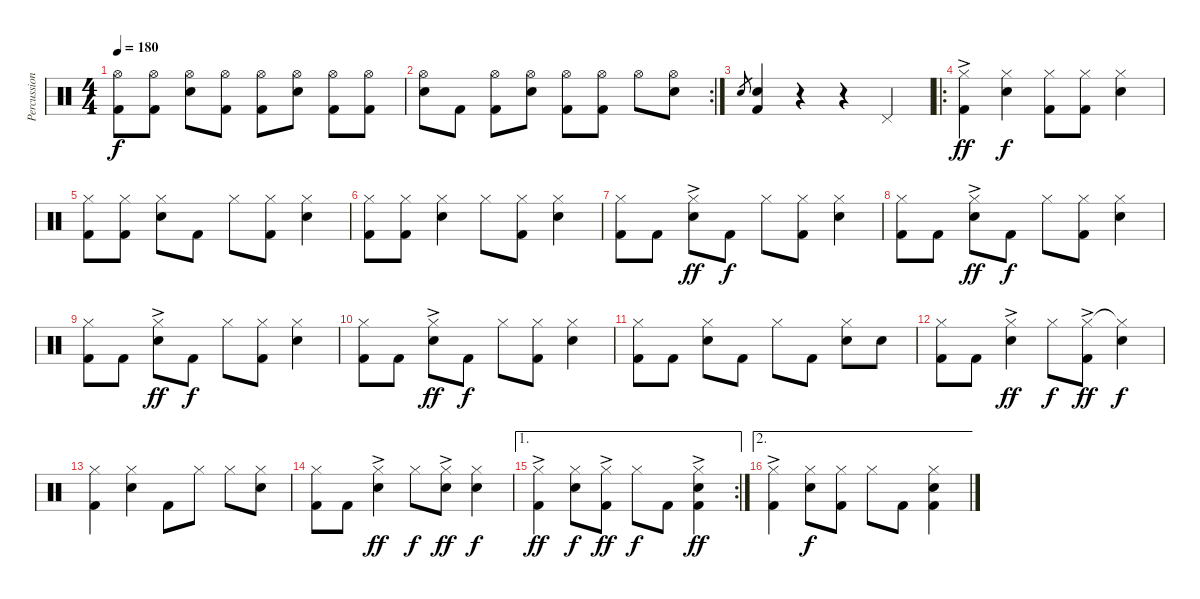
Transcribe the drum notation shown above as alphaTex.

\track ("Percussion" "Percussion") {instrument percussion}
\staff {score}
\articulation defaults
\ts (4 4)
\tempo 180
\clef neutral
\ks c
("Hi-Hat (open)" "Kick (hit) 2").8{dy f} ("Hi-Hat (open)" "Kick (hit) 2").8 ("Hi-Hat (open)" "Snare (hit) 2").8 ("Hi-Hat (open)" "Kick (hit) 2").8 ("Hi-Hat (open)" "Kick (hit) 2").8 ("Hi-Hat (open)" "Snare (hit) 2").8 ("Hi-Hat (open)" "Kick (hit) 2").8 ("Hi-Hat (open)" "Kick (hit) 2").8 |
\rc 2
("Hi-Hat (open)" "Snare (hit) 2").8 "Kick (hit) 2".8 ("Hi-Hat (open)" "Kick (hit) 2").8 ("Hi-Hat (open)" "Snare (hit) 2").8 ("Hi-Hat (open)" "Kick (hit) 2").8 ("Hi-Hat (open)" "Kick (hit) 2").8 "Hi-Hat (open)".8 ("Hi-Hat (open)" "Snare (hit) 2").8 |
"Snare (hit) 2".8{gr} ("Snare (hit) 2" "Kick (hit) 2").4 r.4 r.4 "Pedal Hi-Hat (hit)".4 |
\ro
("Hi-Hat (closed)"{ac} "Kick (hit) 2").4{dy ff} ("Hi-Hat (closed)" "Snare (hit) 2").4{dy f} ("Hi-Hat (closed)" "Kick (hit) 2").8 ("Hi-Hat (closed)" "Kick (hit) 2").8 ("Hi-Hat (closed)" "Snare (hit) 2").4 |
("Hi-Hat (closed)" "Kick (hit) 2").8 ("Hi-Hat (closed)" "Kick (hit) 2").8 ("Hi-Hat (closed)" "Snare (hit) 2").8 "Kick (hit) 2".8 "Hi-Hat (closed)".8 ("Hi-Hat (closed)" "Kick (hit) 2").8 ("Hi-Hat (closed)" "Snare (hit) 2").4 |
("Hi-Hat (closed)" "Kick (hit) 2").8 ("Hi-Hat (closed)" "Kick (hit) 2").8 ("Hi-Hat (closed)" "Snare (hit) 2").4 "Hi-Hat (closed)".8 ("Hi-Hat (closed)" "Kick (hit) 2").8 ("Hi-Hat (closed)" "Snare (hit) 2").4 |
("Hi-Hat (closed)" "Kick (hit) 2").8 "Kick (hit) 2".8 ("Hi-Hat (closed)"{ac} "Snare (hit) 2").8{dy ff} "Kick (hit) 2".8{dy f} "Hi-Hat (closed)".8 ("Hi-Hat (closed)" "Kick (hit) 2").8 ("Hi-Hat (closed)" "Snare (hit) 2").4 |
("Hi-Hat (closed)" "Kick (hit) 2").8 "Kick (hit) 2".8 ("Hi-Hat (closed)"{ac} "Snare (hit) 2").8{dy ff} "Kick (hit) 2".8{dy f} "Hi-Hat (closed)".8 ("Hi-Hat (closed)" "Kick (hit) 2").8 ("Hi-Hat (closed)" "Snare (hit) 2").4 |
("Hi-Hat (closed)" "Kick (hit) 2").8 "Kick (hit) 2".8 ("Hi-Hat (closed)"{ac} "Snare (hit) 2").8{dy ff} "Kick (hit) 2".8{dy f} "Hi-Hat (closed)".8 ("Hi-Hat (closed)" "Kick (hit) 2").8 ("Hi-Hat (closed)" "Snare (hit) 2").4 |
("Hi-Hat (closed)" "Kick (hit) 2").8 "Kick (hit) 2".8 ("Hi-Hat (closed)"{ac} "Snare (hit) 2").8{dy ff} "Kick (hit) 2".8{dy f} "Hi-Hat (closed)".8 ("Hi-Hat (closed)" "Kick (hit) 2").8 ("Hi-Hat (closed)" "Snare (hit) 2").4 |
("Hi-Hat (closed)" "Kick (hit) 2").8 "Kick (hit) 2".8 ("Hi-Hat (closed)" "Snare (hit) 2").8 "Kick (hit) 2".8 "Hi-Hat (closed)".8 "Kick (hit) 2".8 ("Hi-Hat (closed)" "Snare (hit) 2").8 "Snare (hit) 2".8 |
("Hi-Hat (closed)" "Kick (hit) 2").8 "Kick (hit) 2".8 ("Hi-Hat (closed)"{ac} "Snare (hit) 2").4{dy ff} "Hi-Hat (closed)".8{dy f} ("Hi-Hat (closed)"{ac} "Kick (hit) 2").8{dy ff} ("Hi-Hat (closed)"{t} "Snare (hit) 2").4{dy f} |
("Hi-Hat (closed)" "Kick (hit) 2").4 ("Hi-Hat (closed)" "Snare (hit) 2").4 "Kick (hit) 2".8 "Hi-Hat (closed)".8 "Hi-Hat (closed)".8 ("Hi-Hat (closed)" "Snare (hit) 2").8 |
("Hi-Hat (closed)" "Kick (hit) 2").8 "Kick (hit) 2".8 ("Hi-Hat (closed)"{ac} "Snare (hit) 2").4{dy ff} "Hi-Hat (closed)".8{dy f} ("Hi-Hat (closed)"{ac} "Snare (hit) 2").8{dy ff} ("Hi-Hat (closed)" "Snare (hit) 2").4{dy f} |
\ae 1
\rc 2
("Hi-Hat (closed)"{ac} "Kick (hit) 2").4{dy ff} ("Hi-Hat (closed)" "Snare (hit) 2").8{dy f} ("Hi-Hat (closed)"{ac} "Kick (hit) 2").8{dy ff} "Hi-Hat (closed)".8{dy f} "Kick (hit) 2".8 ("Hi-Hat (closed)"{ac} "Kick (hit) 2" "Snare (hit) 2").4{dy ff} |
\ae 2
("Hi-Hat (closed)"{ac} "Kick (hit) 2").4 ("Hi-Hat (closed)" "Snare (hit) 2").8{dy f} ("Hi-Hat (closed)" "Kick (hit) 2").8 "Hi-Hat (closed)".8 "Kick (hit) 2".8 ("Hi-Hat (closed)" "Snare (hit) 2" "Kick (hit) 2").4
